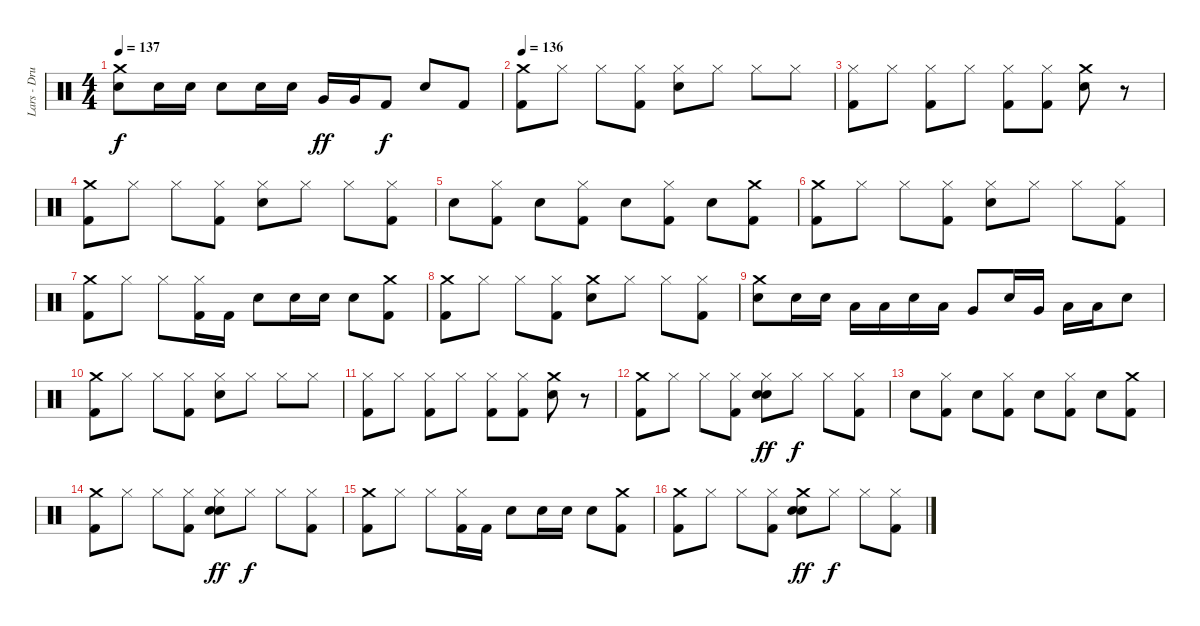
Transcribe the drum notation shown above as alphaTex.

\track ("Lars - Drums" "Lars - Dru") {instrument percussion}
\staff {score}
\articulation defaults
\ts (4 4)
\tempo 137
\clef neutral
\ks c
("Crash medium (hit)" "Snare (hit) 2").8{dy f} "Snare (hit) 2".16 "Snare (hit) 2".16 "Snare (hit) 2".8 "Snare (hit) 2".16 "Snare (hit) 2".16 "Very Low Tom (hit)".16{dy ff} "Very Low Tom (hit)".16 "Kick (hit) 2".8{dy f} "Snare (hit) 2".8 "Kick (hit) 2".8 |
\tempo 136
("Crash medium (hit)" "Kick (hit) 2").8 "Hi-Hat (closed)".8 "Hi-Hat (closed)".8 ("Hi-Hat (closed)" "Kick (hit) 2").8 ("Hi-Hat (closed)" "Snare (hit) 2").8 "Hi-Hat (closed)".8 "Hi-Hat (closed)".8 "Hi-Hat (closed)".8 |
("Hi-Hat (closed)" "Kick (hit) 2").8 "Hi-Hat (closed)".8 ("Hi-Hat (closed)" "Kick (hit) 2").8 "Hi-Hat (closed)".8 ("Hi-Hat (closed)" "Kick (hit) 2").8 ("Hi-Hat (closed)" "Kick (hit) 2").8 ("Crash medium (hit)" "Snare (hit) 2").8 r.8 |
("Crash medium (hit)" "Kick (hit) 2").8 "Hi-Hat (closed)".8 "Hi-Hat (closed)".8 ("Hi-Hat (closed)" "Kick (hit) 2").8 ("Hi-Hat (closed)" "Snare (hit) 2").8 "Hi-Hat (closed)".8 "Hi-Hat (closed)".8 ("Hi-Hat (closed)" "Kick (hit) 2").8 |
"Snare (hit) 2".8 ("Hi-Hat (closed)" "Kick (hit) 2").8 "Snare (hit) 2".8 ("Hi-Hat (closed)" "Kick (hit) 2").8 "Snare (hit) 2".8 ("Hi-Hat (closed)" "Kick (hit) 2").8 "Snare (hit) 2".8 ("Crash medium (hit)" "Kick (hit) 2").8 |
("Crash medium (hit)" "Kick (hit) 2").8 "Hi-Hat (closed)".8 "Hi-Hat (closed)".8 ("Hi-Hat (closed)" "Kick (hit) 2").8 ("Hi-Hat (closed)" "Snare (hit) 2").8 "Hi-Hat (closed)".8 "Hi-Hat (closed)".8 ("Hi-Hat (closed)" "Kick (hit) 2").8 |
("Crash medium (hit)" "Kick (hit) 2").8 "Hi-Hat (closed)".8 "Hi-Hat (closed)".8 ("Hi-Hat (closed)" "Kick (hit) 2").16 "Kick (hit) 2".16 "Snare (hit) 2".8 "Snare (hit) 2".16 "Snare (hit) 2".16 "Snare (hit) 2".8 ("Crash medium (hit)" "Kick (hit) 2").8 |
("Crash medium (hit)" "Kick (hit) 2").8 "Hi-Hat (closed)".8 "Hi-Hat (closed)".8 ("Hi-Hat (closed)" "Kick (hit) 2").8 ("Crash medium (hit)" "Snare (hit) 2").8 "Hi-Hat (closed)".8 "Hi-Hat (closed)".8 ("Hi-Hat (closed)" "Kick (hit) 2").8 |
("Crash medium (hit)" "Snare (hit) 2").8 "Snare (hit) 2".16 "Snare (hit) 2".16 "Low Tom (hit)".16 "Low Tom (hit)".16 "Snare (hit) 2".16 "Low Tom (hit)".16 "Very Low Tom (hit)".8 "Snare (hit) 2".16 "Very Low Tom (hit)".16 "Low Floor Tom (hit)".16 "Low Floor Tom (hit)".16 "Snare (hit) 2".8 |
("Crash medium (hit)" "Kick (hit) 2").8 "Hi-Hat (closed)".8 "Hi-Hat (closed)".8 ("Hi-Hat (closed)" "Kick (hit) 2").8 ("Hi-Hat (closed)" "Snare (hit) 2").8 "Hi-Hat (closed)".8 "Hi-Hat (closed)".8 "Hi-Hat (closed)".8 |
("Hi-Hat (closed)" "Kick (hit) 2").8 "Hi-Hat (closed)".8 ("Hi-Hat (closed)" "Kick (hit) 2").8 "Hi-Hat (closed)".8 ("Hi-Hat (closed)" "Kick (hit) 2").8 ("Hi-Hat (closed)" "Kick (hit) 2").8 ("Crash medium (hit)" "Snare (hit) 2").8 r.8 |
("Crash medium (hit)" "Kick (hit) 2").8 "Hi-Hat (closed)".8 "Hi-Hat (closed)".8 ("Hi-Hat (closed)" "Kick (hit) 2").8 ("Snare (hit) 2" "Hi-Hat (closed)" "Snare (hit) 2").8{dy ff} "Hi-Hat (closed)".8{dy f} "Hi-Hat (closed)".8 ("Hi-Hat (closed)" "Kick (hit) 2").8 |
"Snare (hit) 2".8 ("Hi-Hat (closed)" "Kick (hit) 2").8 "Snare (hit) 2".8 ("Hi-Hat (closed)" "Kick (hit) 2").8 "Snare (hit) 2".8 ("Hi-Hat (closed)" "Kick (hit) 2").8 "Snare (hit) 2".8 ("Crash medium (hit)" "Kick (hit) 2").8 |
("Crash medium (hit)" "Kick (hit) 2").8 "Hi-Hat (closed)".8 "Hi-Hat (closed)".8 ("Hi-Hat (closed)" "Kick (hit) 2").8 ("Snare (hit) 2" "Hi-Hat (closed)" "Snare (hit) 2").8{dy ff} "Hi-Hat (closed)".8{dy f} "Hi-Hat (closed)".8 ("Hi-Hat (closed)" "Kick (hit) 2").8 |
("Crash medium (hit)" "Kick (hit) 2").8 "Hi-Hat (closed)".8 "Hi-Hat (closed)".8 ("Hi-Hat (closed)" "Kick (hit) 2").16 "Kick (hit) 2".16 "Snare (hit) 2".8 "Snare (hit) 2".16 "Snare (hit) 2".16 "Snare (hit) 2".8 ("Crash medium (hit)" "Kick (hit) 2").8 |
("Crash medium (hit)" "Kick (hit) 2").8 "Hi-Hat (closed)".8 "Hi-Hat (closed)".8 ("Hi-Hat (closed)" "Kick (hit) 2").8 ("Snare (hit) 2" "Crash medium (hit)" "Snare (hit) 2").8{dy ff} "Hi-Hat (closed)".8{dy f} "Hi-Hat (closed)".8 ("Hi-Hat (closed)" "Kick (hit) 2").8
